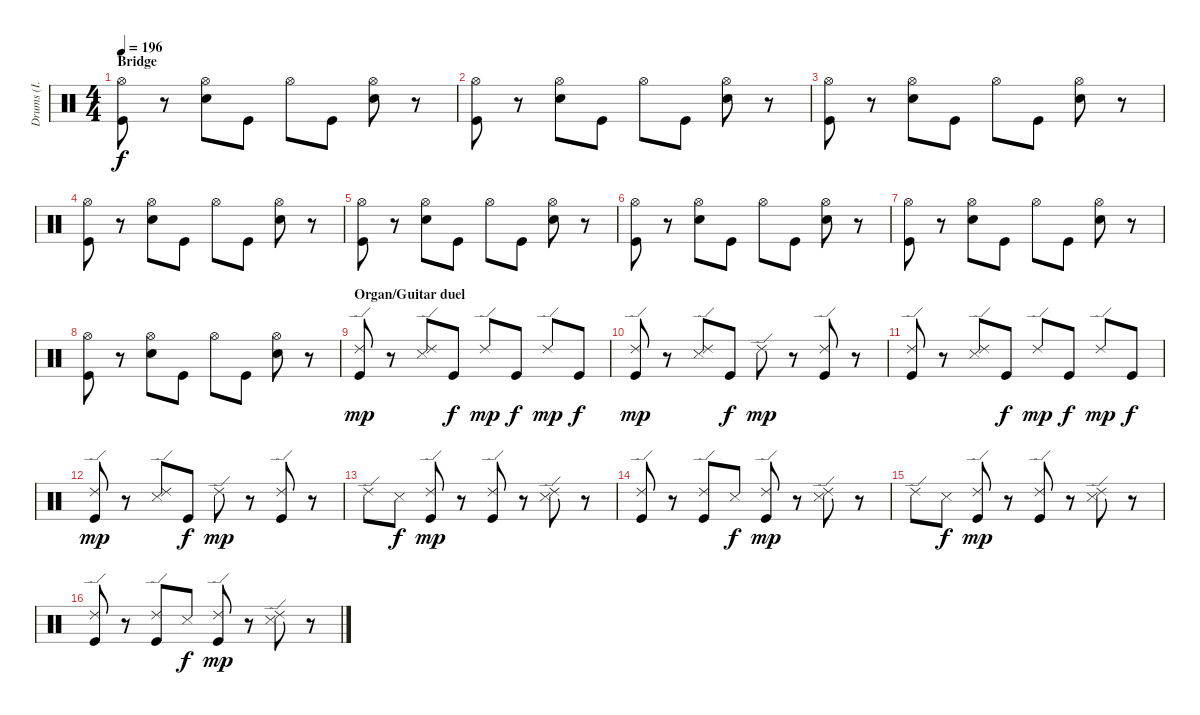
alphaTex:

\track ("Drums (I. Paice)" "Drums (I. ") {instrument percussion}
\staff {score}
\articulation defaults
\ts (4 4)
\section ("" "Bridge")
\tempo 196
\clef neutral
\ks c
("Hi-Hat (open)" "Kick (hit)").8{dy f} r.8 ("Hi-Hat (open)" "Snare (hit) 2").8 "Kick (hit)".8 "Hi-Hat (open)".8 "Kick (hit)".8 ("Hi-Hat (open)" "Snare (hit) 2").8 r.8 |
("Hi-Hat (open)" "Kick (hit)").8 r.8 ("Hi-Hat (open)" "Snare (hit) 2").8 "Kick (hit)".8 "Hi-Hat (open)".8 "Kick (hit)".8 ("Hi-Hat (open)" "Snare (hit) 2").8 r.8 |
("Hi-Hat (open)" "Kick (hit)").8 r.8 ("Hi-Hat (open)" "Snare (hit) 2").8 "Kick (hit)".8 "Hi-Hat (open)".8 "Kick (hit)".8 ("Hi-Hat (open)" "Snare (hit) 2").8 r.8 |
("Hi-Hat (open)" "Kick (hit)").8 r.8 ("Hi-Hat (open)" "Snare (hit) 2").8 "Kick (hit)".8 "Hi-Hat (open)".8 "Kick (hit)".8 ("Hi-Hat (open)" "Snare (hit) 2").8 r.8 |
("Hi-Hat (open)" "Kick (hit)").8 r.8 ("Hi-Hat (open)" "Snare (hit) 2").8 "Kick (hit)".8 "Hi-Hat (open)".8 "Kick (hit)".8 ("Hi-Hat (open)" "Snare (hit) 2").8 r.8 |
("Hi-Hat (open)" "Kick (hit)").8 r.8 ("Hi-Hat (open)" "Snare (hit) 2").8 "Kick (hit)".8 "Hi-Hat (open)".8 "Kick (hit)".8 ("Hi-Hat (open)" "Snare (hit) 2").8 r.8 |
("Hi-Hat (open)" "Kick (hit)").8 r.8 ("Hi-Hat (open)" "Snare (hit) 2").8 "Kick (hit)".8 "Hi-Hat (open)".8 "Kick (hit)".8 ("Hi-Hat (open)" "Snare (hit) 2").8 r.8 |
("Hi-Hat (open)" "Kick (hit)").8 r.8 ("Hi-Hat (open)" "Snare (hit) 2").8 "Kick (hit)".8 "Hi-Hat (open)".8 "Kick (hit)".8 ("Hi-Hat (open)" "Snare (hit) 2").8 r.8 |
\section ("" "Organ/Guitar duel")
("Ride (edge) 2" "Kick (hit)").8{dy mp} r.8 ("Ride (edge) 2" "Snare (side stick) 3").8 "Kick (hit)".8{dy f} "Ride (edge) 2".8{dy mp} "Kick (hit)".8{dy f} "Ride (edge) 2".8{dy mp} "Kick (hit)".8{dy f} |
("Ride (edge) 2" "Kick (hit)").8{dy mp} r.8 ("Ride (edge) 2" "Snare (side stick) 3").8 "Kick (hit)".8{dy f} "Ride (edge) 2".8{dy mp} r.8 ("Ride (edge) 2" "Kick (hit)").8 r.8 |
("Ride (edge) 2" "Kick (hit)").8 r.8 ("Ride (edge) 2" "Snare (side stick) 3").8 "Kick (hit)".8{dy f} "Ride (edge) 2".8{dy mp} "Kick (hit)".8{dy f} "Ride (edge) 2".8{dy mp} "Kick (hit)".8{dy f} |
("Ride (edge) 2" "Kick (hit)").8{dy mp} r.8 ("Ride (edge) 2" "Snare (side stick) 3").8 "Kick (hit)".8{dy f} "Ride (edge) 2".8{dy mp} r.8 ("Ride (edge) 2" "Kick (hit)").8 r.8 |
"Ride (edge) 2".8 "Snare (side stick) 3".8{dy f} ("Ride (edge) 2" "Kick (hit)").8{dy mp} r.8 ("Ride (edge) 2" "Kick (hit)").8 r.8 ("Ride (edge) 2" "Snare (side stick) 3").8 r.8 |
("Ride (edge) 2" "Kick (hit)").8 r.8 ("Ride (edge) 2" "Kick (hit)").8 "Snare (side stick) 3".8{dy f} ("Ride (edge) 2" "Kick (hit)").8{dy mp} r.8 ("Ride (edge) 2" "Snare (side stick) 3").8 r.8 |
"Ride (edge) 2".8 "Snare (side stick) 3".8{dy f} ("Ride (edge) 2" "Kick (hit)").8{dy mp} r.8 ("Ride (edge) 2" "Kick (hit)").8 r.8 ("Ride (edge) 2" "Snare (side stick) 3").8 r.8 |
("Ride (edge) 2" "Kick (hit)").8 r.8 ("Ride (edge) 2" "Kick (hit)").8 "Snare (side stick) 3".8{dy f} ("Ride (edge) 2" "Kick (hit)").8{dy mp} r.8 ("Ride (edge) 2" "Snare (side stick) 3").8 r.8
